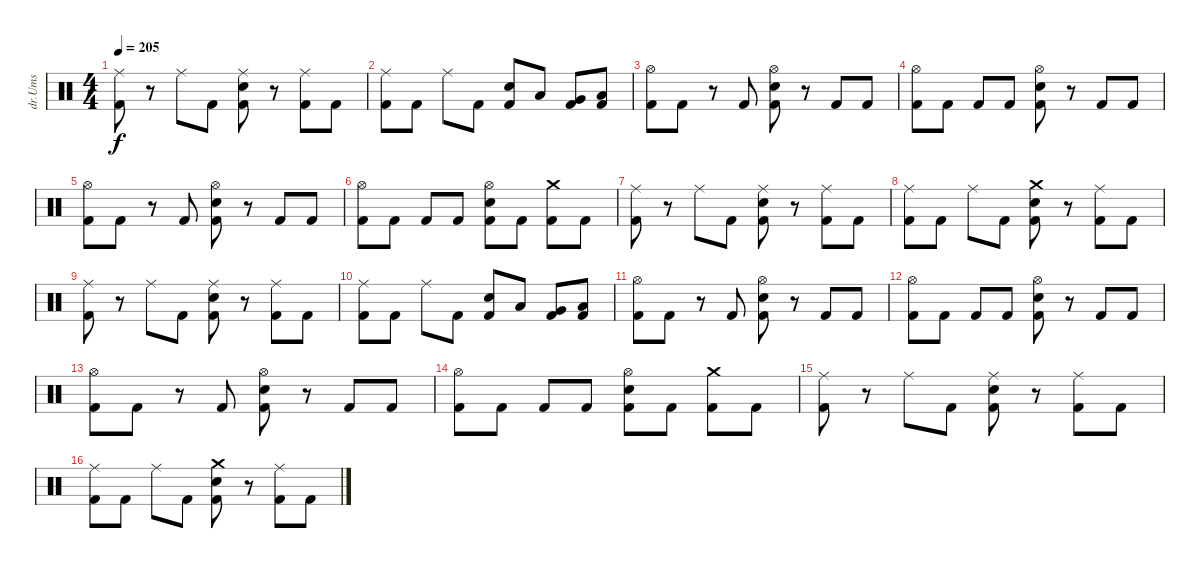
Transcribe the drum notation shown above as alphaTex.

\track ("dr.Ums" "dr.Ums") {instrument percussion}
\staff {score}
\articulation defaults
\ts (4 4)
\tempo 205
\clef neutral
\ks c
("Ride (middle)" "Kick (hit) 2").8{dy f} r.8 "Ride (middle)".8 "Kick (hit) 2".8 ("Ride (middle)" "Snare (hit) 2" "Kick (hit) 2").8 r.8 ("Ride (middle)" "Kick (hit) 2").8 "Kick (hit) 2".8 |
("Ride (middle)" "Kick (hit) 2").8 "Kick (hit) 2".8 "Ride (middle)".8 "Kick (hit) 2".8 ("Snare (hit) 2" "Kick (hit) 2").8 "Low Tom (hit)".8 ("Very Low Tom (hit)" "Kick (hit) 2").8 ("Low Floor Tom (hit)" "Kick (hit) 2").8 |
("Hi-Hat (open)" "Kick (hit) 2").8 "Kick (hit) 2".8 r.8 "Kick (hit) 2".8 ("Hi-Hat (open)" "Snare (hit) 2" "Kick (hit) 2").8 r.8 "Kick (hit) 2".8 "Kick (hit) 2".8 |
("Hi-Hat (open)" "Kick (hit) 2").8 "Kick (hit) 2".8 "Kick (hit) 2".8 "Kick (hit) 2".8 ("Hi-Hat (open)" "Snare (hit) 2" "Kick (hit) 2").8 r.8 "Kick (hit) 2".8 "Kick (hit) 2".8 |
("Hi-Hat (open)" "Kick (hit) 2").8 "Kick (hit) 2".8 r.8 "Kick (hit) 2".8 ("Hi-Hat (open)" "Snare (hit) 2" "Kick (hit) 2").8 r.8 "Kick (hit) 2".8 "Kick (hit) 2".8 |
("Hi-Hat (open)" "Kick (hit) 2").8 "Kick (hit) 2".8 "Kick (hit) 2".8 "Kick (hit) 2".8 ("Hi-Hat (open)" "Snare (hit) 2" "Kick (hit) 2").8 "Kick (hit) 2".8 ("Crash medium (hit)" "Kick (hit) 2").8 "Kick (hit) 2".8 |
("Ride (middle)" "Kick (hit) 2").8 r.8 "Ride (middle)".8 "Kick (hit) 2".8 ("Ride (middle)" "Snare (hit) 2" "Kick (hit) 2").8 r.8 ("Ride (middle)" "Kick (hit) 2").8 "Kick (hit) 2".8 |
("Ride (middle)" "Kick (hit) 2").8 "Kick (hit) 2".8 "Ride (middle)".8 "Kick (hit) 2".8 ("Crash medium (hit)" "Snare (hit) 2" "Kick (hit) 2").8 r.8 ("Ride (middle)" "Kick (hit) 2").8 "Kick (hit) 2".8 |
("Ride (middle)" "Kick (hit) 2").8 r.8 "Ride (middle)".8 "Kick (hit) 2".8 ("Ride (middle)" "Snare (hit) 2" "Kick (hit) 2").8 r.8 ("Ride (middle)" "Kick (hit) 2").8 "Kick (hit) 2".8 |
("Ride (middle)" "Kick (hit) 2").8 "Kick (hit) 2".8 "Ride (middle)".8 "Kick (hit) 2".8 ("Snare (hit) 2" "Kick (hit) 2").8 "Low Tom (hit)".8 ("Very Low Tom (hit)" "Kick (hit) 2").8 ("Low Floor Tom (hit)" "Kick (hit) 2").8 |
("Hi-Hat (open)" "Kick (hit) 2").8 "Kick (hit) 2".8 r.8 "Kick (hit) 2".8 ("Hi-Hat (open)" "Snare (hit) 2" "Kick (hit) 2").8 r.8 "Kick (hit) 2".8 "Kick (hit) 2".8 |
("Hi-Hat (open)" "Kick (hit) 2").8 "Kick (hit) 2".8 "Kick (hit) 2".8 "Kick (hit) 2".8 ("Hi-Hat (open)" "Snare (hit) 2" "Kick (hit) 2").8 r.8 "Kick (hit) 2".8 "Kick (hit) 2".8 |
("Hi-Hat (open)" "Kick (hit) 2").8 "Kick (hit) 2".8 r.8 "Kick (hit) 2".8 ("Hi-Hat (open)" "Snare (hit) 2" "Kick (hit) 2").8 r.8 "Kick (hit) 2".8 "Kick (hit) 2".8 |
("Hi-Hat (open)" "Kick (hit) 2").8 "Kick (hit) 2".8 "Kick (hit) 2".8 "Kick (hit) 2".8 ("Hi-Hat (open)" "Snare (hit) 2" "Kick (hit) 2").8 "Kick (hit) 2".8 ("Crash medium (hit)" "Kick (hit) 2").8 "Kick (hit) 2".8 |
("Ride (middle)" "Kick (hit) 2").8 r.8 "Ride (middle)".8 "Kick (hit) 2".8 ("Ride (middle)" "Snare (hit) 2" "Kick (hit) 2").8 r.8 ("Ride (middle)" "Kick (hit) 2").8 "Kick (hit) 2".8 |
("Ride (middle)" "Kick (hit) 2").8 "Kick (hit) 2".8 "Ride (middle)".8 "Kick (hit) 2".8 ("Crash medium (hit)" "Snare (hit) 2" "Kick (hit) 2").8 r.8 ("Ride (middle)" "Kick (hit) 2").8 "Kick (hit) 2".8
